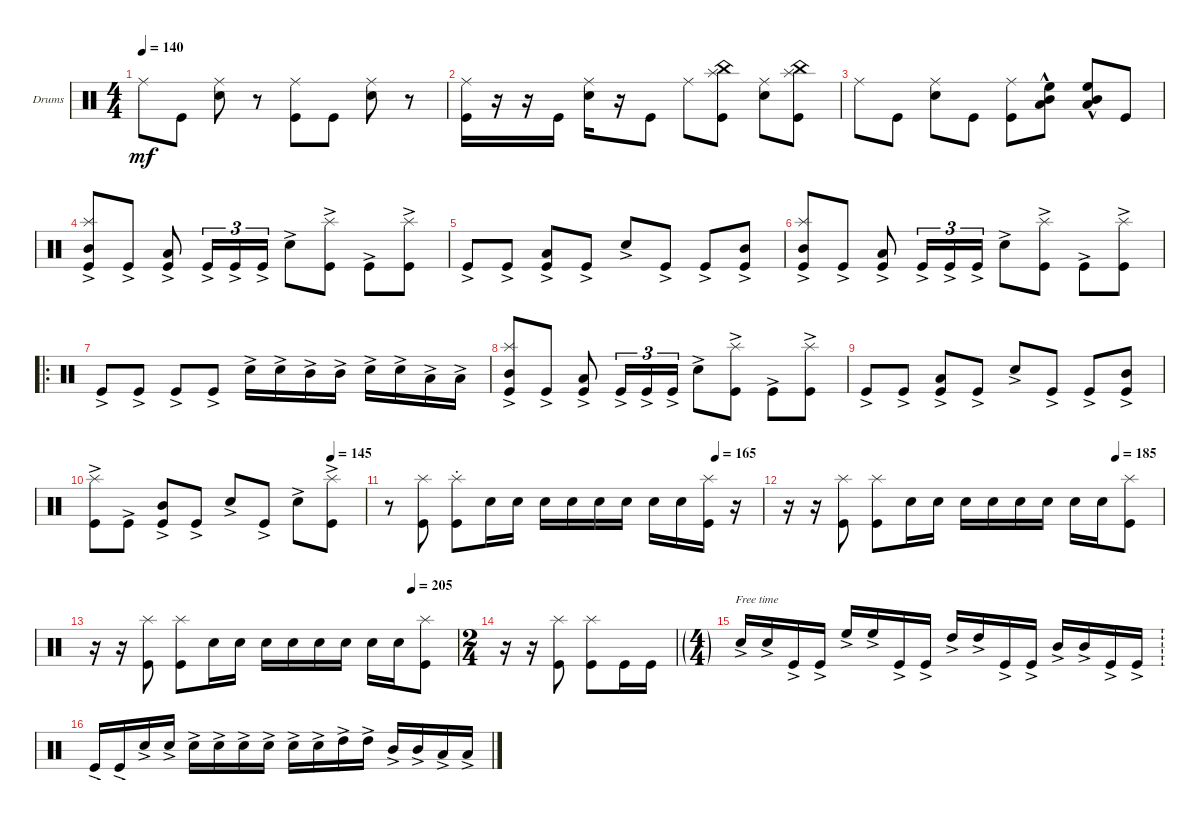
\bracketExtendMode groupsimilarinstruments
\firstSystemTrackNameOrientation horizontal
\otherSystemsTrackNameOrientation horizontal
\track ("Drumkit" "Drums") {instrument percussion}
\staff {score}
\articulation defaults
\ts (4 4)
\tempo 140
\clef neutral
\ks c "Ride (middle)".8{dy mf} "Kick (hit)".8
("Snare (hit) 2" "Ride (middle)").8 r.8 ("Kick (hit)" "Ride (middle)").8 "Kick (hit)".8 ("Snare (hit) 2" "Ride (middle)").8 r.8 |
("Kick (hit)" "Ride (middle)").16 r.16 r.16 "Kick (hit)".16 ("Snare (hit) 2" "Ride (middle)").16 r.16 "Kick (hit)".8 "Ride (middle)".8 ("Kick (hit)" "China (hit)" "Splash (hit)").8 ("Snare (hit) 2" "Ride (middle)").8 ("Kick (hit)" "China (hit)" "Splash (hit)").8 |
"Ride (middle)".8 "Kick (hit)".8 ("Snare (hit) 2" "Ride (middle)").8 "Kick (hit)".8 ("Kick (hit)" "Ride (middle)").8 ("Mid Tom (hit)"{hac} "Low Tom (hit)"{hac} "High Floor Tom (hit)"{hac}).8 ("Mid Tom (hit)"{hac} "Low Tom (hit)"{hac} "High Floor Tom (hit)"{hac}).8 "Kick (hit)".8 |
("Kick (hit)"{ac} "Mid Tom (hit)"{ac} "Splash (hit)"{ac}).8 "Kick (hit)"{ac}.8 ("Kick (hit)"{ac} "Low Tom (hit)"{ac}).8 "Kick (hit)"{ac}.16{tu (3 2)} "Kick (hit)"{ac}.16{tu (3 2)} "Kick (hit)"{ac}.16{tu (3 2)} "Snare (hit) 2"{ac}.8 ("Kick (hit)"{ac} "Splash (hit)"{ac}).8 "Kick (hit)"{ac}.8 ("Kick (hit)"{ac} "Splash (hit)"{ac}).8 |
"Kick (hit)"{ac}.8 "Kick (hit)"{ac}.8 ("Kick (hit)"{ac} "Low Tom (hit)"{ac}).8 "Kick (hit)"{ac}.8 "Snare (hit) 2"{ac}.8 "Kick (hit)"{ac}.8 "Kick (hit)"{ac}.8 ("Kick (hit)"{ac} "Mid Tom (hit)"{ac}).8 |
("Kick (hit)"{ac} "Mid Tom (hit)"{ac} "Splash (hit)"{ac}).8 "Kick (hit)"{ac}.8 ("Kick (hit)"{ac} "Low Tom (hit)"{ac}).8 "Kick (hit)"{ac}.16{tu (3 2)} "Kick (hit)"{ac}.16{tu (3 2)} "Kick (hit)"{ac}.16{tu (3 2)} "Snare (hit) 2"{ac}.8 ("Kick (hit)"{ac} "Splash (hit)"{ac}).8 "Kick (hit)"{ac}.8 ("Kick (hit)"{ac} "Splash (hit)"{ac}).8 |
\ro "Kick (hit)"{ac}.8 "Kick (hit)"{ac}.8 "Kick (hit)"{ac}.8 "Kick (hit)"{ac}.8 "Snare (hit) 2"{ac}.16 "Snare (hit) 2"{ac}.16 "Mid Tom (hit)"{ac}.16 "Mid Tom (hit)"{ac}.16 "Snare (hit) 2"{ac}.16 "Snare (hit) 2"{ac}.16 "Low Tom (hit)"{ac}.16 "Low Tom (hit)"{ac}.16
|
("Kick (hit)"{ac} "Mid Tom (hit)"{ac} "Splash (hit)"{ac}).8 "Kick (hit)"{ac}.8 ("Kick (hit)"{ac} "Low Tom (hit)"{ac}).8 "Kick (hit)"{ac}.16{tu (3 2)} "Kick (hit)"{ac}.16{tu (3 2)} "Kick (hit)"{ac}.16{tu (3 2)} "Snare (hit) 2"{ac}.8 ("Kick (hit)"{ac} "Splash (hit)"{ac}).8 "Kick (hit)"{ac}.8 ("Kick (hit)"{ac} "Splash (hit)"{ac}).8 |
"Kick (hit)"{ac}.8 "Kick (hit)"{ac}.8 ("Kick (hit)"{ac} "Low Tom (hit)"{ac}).8 "Kick (hit)"{ac}.8 "Snare (hit) 2"{ac}.8 "Kick (hit)"{ac}.8 "Kick (hit)"{ac}.8 ("Kick (hit)"{ac} "Mid Tom (hit)"{ac}).8 |
\tempo (145 0.875)
("Kick (hit)"{ac} "Splash (hit)"{ac}).8 "Kick (hit)"{ac}.8 ("Kick (hit)"{ac} "Mid Tom (hit)"{ac}).8 "Kick (hit)"{ac}.8 "Snare (hit) 2"{ac}.8 "Kick (hit)"{ac}.8 "Snare (hit) 2"{ac}.8 ("Kick (hit)"{ac} "Splash (hit)"{ac}).8 |
\tempo (165 0.875)
r.8 ("Kick (hit)" "Splash (hit)").8 ("Kick (hit)" "Splash (hit)"{st}).8 "Snare (hit) 2".16 "Snare (hit) 2".16 "Snare (hit) 2".16 "Snare (hit) 2".16 "Snare (hit) 2".16 "Snare (hit) 2".16 "Snare (hit) 2".16 "Snare (hit) 2".16 ("Kick (hit)" "Splash (hit)").16 r.16 |
\tempo (185 0.875)
r.16 r.16 ("Kick (hit)" "Splash (hit)").8 ("Kick (hit)" "Splash (hit)").8 "Snare (hit) 2".16 "Snare (hit) 2".16 "Snare (hit) 2".16 "Snare (hit) 2".16 "Snare (hit) 2".16 "Snare (hit) 2".16 "Snare (hit) 2".16 "Snare (hit) 2".16 ("Kick (hit)" "Splash (hit)").8 |
\tempo (205 0.875)
r.16 r.16 ("Kick (hit)" "Splash (hit)").8 ("Kick (hit)" "Splash (hit)").8 "Snare (hit) 2".16 "Snare (hit) 2".16 "Snare (hit) 2".16 "Snare (hit) 2".16 "Snare (hit) 2".16 "Snare (hit) 2".16 "Snare (hit) 2".16 "Snare (hit) 2".16 ("Kick (hit)" "Splash (hit)").8 |
\ts (2 4)
r.16 r.16 ("Kick (hit)" "Splash (hit)").8 ("Kick (hit)" "Splash (hit)").8 "Kick (hit)".16 "Kick (hit)".16 |
\ts (4 4)
\ft "Snare (hit) 2"{ac}.16 "Snare (hit) 2"{ac}.16 "Kick (hit)"{ac}.16 "Kick (hit)"{ac}.16 "High Floor Tom (hit)"{ac}.16 "High Floor Tom (hit)"{ac}.16 "Kick (hit)"{ac}.16 "Kick (hit)"{ac}.16 "High Tom (hit)"{ac}.16 "High Tom (hit)"{ac}.16 "Kick (hit)"{ac}.16 "Kick (hit)"{ac}.16 "Mid Tom (hit)"{ac}.16 "Mid Tom (hit)"{ac}.16 "Kick (hit)"{ac}.16 "Kick (hit)"{ac}.16
|
"Kick (hit)"{ac}.16 "Kick (hit)"{ac}.16 "Snare (hit) 2"{ac}.16 "Snare (hit) 2"{ac}.16 "Snare (hit) 2"{ac}.16 "Snare (hit) 2"{ac}.16 "Snare (hit) 2"{ac}.16 "Snare (hit) 2"{ac}.16 "Snare (hit) 2"{ac}.16 "Snare (hit) 2"{ac}.16 "High Tom (hit)"{ac}.16 "High Tom (hit)"{ac}.16 "Mid Tom (hit)"{ac}.16 "Mid Tom (hit)"{ac}.16 "Low Tom (hit)"{ac}.16 "Low Tom (hit)"{ac}.16
